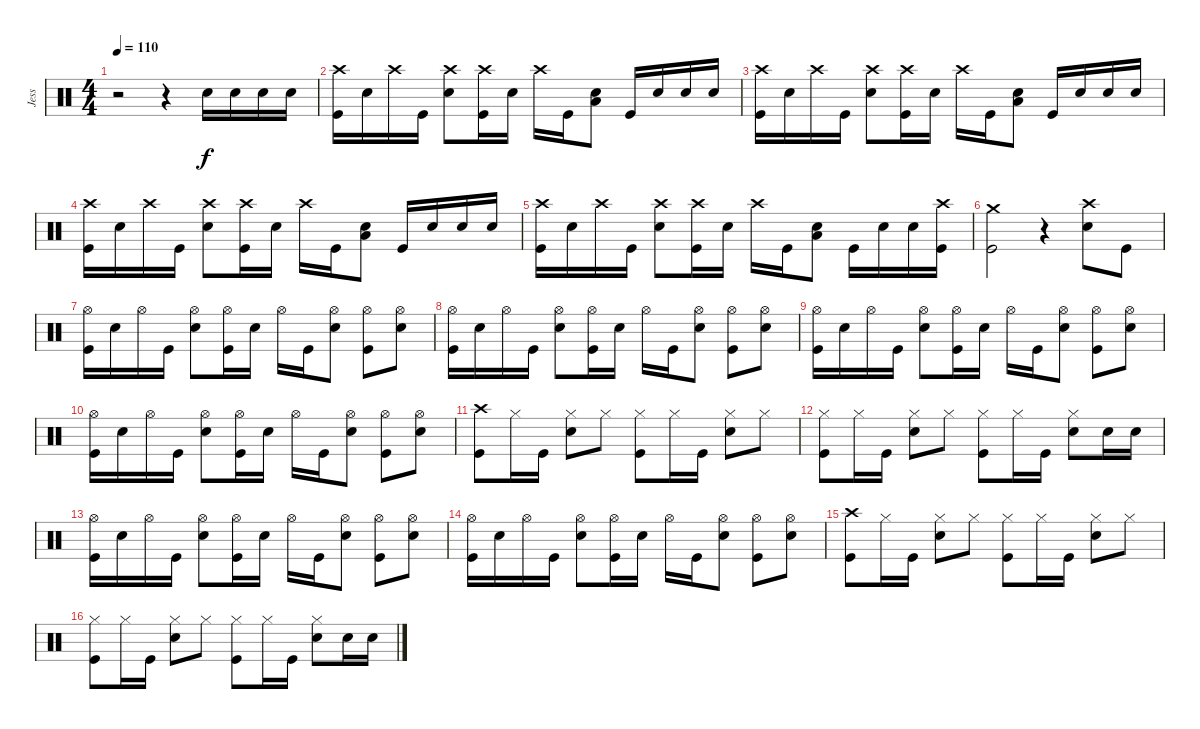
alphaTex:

\track ("Jess" "Jess") {instrument percussion}
\staff {score}
\articulation defaults
\ts (4 4)
\tempo 110
\clef neutral
\ks c
r.2{dy f} r.4 "Electric Snare (hit)".16 "Electric Snare (hit)".16 "Electric Snare (hit)".16 "Electric Snare (hit)".16 |
("Crash high (hit)" "Kick (hit)").16 "Electric Snare (hit)".16 "Crash high (hit)".16 "Kick (hit)".16 ("Crash high (hit)" "Electric Snare (hit)").8 ("Crash high (hit)" "Kick (hit)").16 "Electric Snare (hit)".16 "Crash high (hit)".16 "Kick (hit)".16 ("Electric Snare (hit)" "Low Floor Tom (hit)").8 "Kick (hit)".16 "Electric Snare (hit)".16 "Electric Snare (hit)".16 "Electric Snare (hit)".16 |
("Crash high (hit)" "Kick (hit)").16 "Electric Snare (hit)".16 "Crash high (hit)".16 "Kick (hit)".16 ("Crash high (hit)" "Electric Snare (hit)").8 ("Crash high (hit)" "Kick (hit)").16 "Electric Snare (hit)".16 "Crash high (hit)".16 "Kick (hit)".16 ("Electric Snare (hit)" "Low Floor Tom (hit)").8 "Kick (hit)".16 "Electric Snare (hit)".16 "Electric Snare (hit)".16 "Electric Snare (hit)".16 |
("Crash high (hit)" "Kick (hit)").16 "Electric Snare (hit)".16 "Crash high (hit)".16 "Kick (hit)".16 ("Crash high (hit)" "Electric Snare (hit)").8 ("Crash high (hit)" "Kick (hit)").16 "Electric Snare (hit)".16 "Crash high (hit)".16 "Kick (hit)".16 ("Electric Snare (hit)" "Low Floor Tom (hit)").8 "Kick (hit)".16 "Electric Snare (hit)".16 "Electric Snare (hit)".16 "Electric Snare (hit)".16 |
("Crash high (hit)" "Kick (hit)").16 "Electric Snare (hit)".16 "Crash high (hit)".16 "Kick (hit)".16 ("Crash high (hit)" "Electric Snare (hit)").8 ("Crash high (hit)" "Kick (hit)").16 "Electric Snare (hit)".16 "Crash high (hit)".16 "Kick (hit)".16 ("Electric Snare (hit)" "Low Floor Tom (hit)").8 "Kick (hit)".16 "Electric Snare (hit)".16 "Electric Snare (hit)".16 ("Crash high (hit)" "Kick (hit)").16 |
("Crash medium (hit)" "Kick (hit)").2 r.4 ("Crash high (hit)" "Electric Snare (hit)").8 "Kick (hit)".8 |
("Hi-Hat (open)" "Kick (hit)").16 "Electric Snare (hit)".16 "Hi-Hat (open)".16 "Kick (hit)".16 ("Hi-Hat (open)" "Electric Snare (hit)").8 ("Hi-Hat (open)" "Kick (hit)").16 "Electric Snare (hit)".16 "Hi-Hat (open)".16 "Kick (hit)".16 ("Hi-Hat (open)" "Electric Snare (hit)").8 ("Hi-Hat (open)" "Kick (hit)").8 ("Hi-Hat (open)" "Electric Snare (hit)").8 |
("Hi-Hat (open)" "Kick (hit)").16 "Electric Snare (hit)".16 "Hi-Hat (open)".16 "Kick (hit)".16 ("Hi-Hat (open)" "Electric Snare (hit)").8 ("Hi-Hat (open)" "Kick (hit)").16 "Electric Snare (hit)".16 "Hi-Hat (open)".16 "Kick (hit)".16 ("Hi-Hat (open)" "Electric Snare (hit)").8 ("Hi-Hat (open)" "Kick (hit)").8 ("Hi-Hat (open)" "Electric Snare (hit)").8 |
("Hi-Hat (open)" "Kick (hit)").16 "Electric Snare (hit)".16 "Hi-Hat (open)".16 "Kick (hit)".16 ("Hi-Hat (open)" "Electric Snare (hit)").8 ("Hi-Hat (open)" "Kick (hit)").16 "Electric Snare (hit)".16 "Hi-Hat (open)".16 "Kick (hit)".16 ("Hi-Hat (open)" "Electric Snare (hit)").8 ("Hi-Hat (open)" "Kick (hit)").8 ("Hi-Hat (open)" "Electric Snare (hit)").8 |
("Hi-Hat (open)" "Kick (hit)").16 "Electric Snare (hit)".16 "Hi-Hat (open)".16 "Kick (hit)".16 ("Hi-Hat (open)" "Electric Snare (hit)").8 ("Hi-Hat (open)" "Kick (hit)").16 "Electric Snare (hit)".16 "Hi-Hat (open)".16 "Kick (hit)".16 ("Hi-Hat (open)" "Electric Snare (hit)").8 ("Hi-Hat (open)" "Kick (hit)").8 ("Hi-Hat (open)" "Electric Snare (hit)").8 |
("Crash high (hit)" "Kick (hit)").8 "Hi-Hat (closed)".16 "Kick (hit)".16 ("Hi-Hat (closed)" "Electric Snare (hit)").8 "Hi-Hat (closed)".8 ("Hi-Hat (closed)" "Kick (hit)").8 "Hi-Hat (closed)".16 "Kick (hit)".16 ("Hi-Hat (closed)" "Electric Snare (hit)").8 "Hi-Hat (closed)".8 |
("Hi-Hat (closed)" "Kick (hit)").8 "Hi-Hat (closed)".16 "Kick (hit)".16 ("Hi-Hat (closed)" "Electric Snare (hit)").8 "Hi-Hat (closed)".8 ("Hi-Hat (closed)" "Kick (hit)").8 "Hi-Hat (closed)".16 "Kick (hit)".16 ("Hi-Hat (closed)" "Electric Snare (hit)").8 "Electric Snare (hit)".16 "Electric Snare (hit)".16 |
("Hi-Hat (open)" "Kick (hit)").16 "Electric Snare (hit)".16 "Hi-Hat (open)".16 "Kick (hit)".16 ("Hi-Hat (open)" "Electric Snare (hit)").8 ("Hi-Hat (open)" "Kick (hit)").16 "Electric Snare (hit)".16 "Hi-Hat (open)".16 "Kick (hit)".16 ("Hi-Hat (open)" "Electric Snare (hit)").8 ("Hi-Hat (open)" "Kick (hit)").8 ("Hi-Hat (open)" "Electric Snare (hit)").8 |
("Hi-Hat (open)" "Kick (hit)").16 "Electric Snare (hit)".16 "Hi-Hat (open)".16 "Kick (hit)".16 ("Hi-Hat (open)" "Electric Snare (hit)").8 ("Hi-Hat (open)" "Kick (hit)").16 "Electric Snare (hit)".16 "Hi-Hat (open)".16 "Kick (hit)".16 ("Hi-Hat (open)" "Electric Snare (hit)").8 ("Hi-Hat (open)" "Kick (hit)").8 ("Hi-Hat (open)" "Electric Snare (hit)").8 |
("Crash high (hit)" "Kick (hit)").8 "Hi-Hat (closed)".16 "Kick (hit)".16 ("Hi-Hat (closed)" "Electric Snare (hit)").8 "Hi-Hat (closed)".8 ("Hi-Hat (closed)" "Kick (hit)").8 "Hi-Hat (closed)".16 "Kick (hit)".16 ("Hi-Hat (closed)" "Electric Snare (hit)").8 "Hi-Hat (closed)".8 |
("Hi-Hat (closed)" "Kick (hit)").8 "Hi-Hat (closed)".16 "Kick (hit)".16 ("Hi-Hat (closed)" "Electric Snare (hit)").8 "Hi-Hat (closed)".8 ("Hi-Hat (closed)" "Kick (hit)").8 "Hi-Hat (closed)".16 "Kick (hit)".16 ("Hi-Hat (closed)" "Electric Snare (hit)").8 "Electric Snare (hit)".16 "Electric Snare (hit)".16
